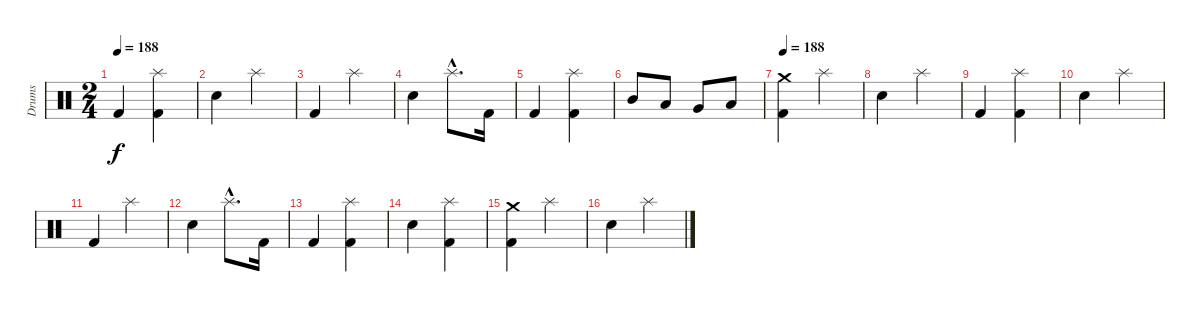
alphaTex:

\track ("Drums" "Drums") {instrument percussion}
\staff {score}
\articulation defaults
\ts (2 4)
\tempo 188
\clef neutral
\ks c "Kick (hit) 2".4{dy f}
("Splash (hit)" "Kick (hit) 2").4 |
"Electric Snare (hit)".4 "Splash (hit)".4 |
"Kick (hit) 2".4 "Splash (hit)".4 |
"Electric Snare (hit)".4 "Splash (hit)"{hac}.8{d} "Kick (hit) 2".16 |
"Kick (hit) 2".4 ("Splash (hit)" "Kick (hit) 2").4 |
"Mid Tom (hit)".8 "Low Tom (hit)".8 "Very Low Tom (hit)".8 "Low Floor Tom (hit)".8 |
\tempo 188
("Crash medium (hit)" "Kick (hit) 2").4 "Splash (hit)".4 |
"Electric Snare (hit)".4 "Splash (hit)".4 |
"Kick (hit) 2".4 ("Splash (hit)" "Kick (hit) 2").4 |
"Electric Snare (hit)".4 "Splash (hit)".4 |
"Kick (hit) 2".4 "Splash (hit)".4 |
"Electric Snare (hit)".4 "Splash (hit)"{hac}.8{d} "Kick (hit) 2".16 |
"Kick (hit) 2".4 ("Splash (hit)" "Kick (hit) 2").4 |
"Electric Snare (hit)".4 ("Splash (hit)" "Kick (hit) 2").4 |
("Crash medium (hit)" "Kick (hit) 2").4 "Splash (hit)".4 |
"Electric Snare (hit)".4 "Splash (hit)".4
